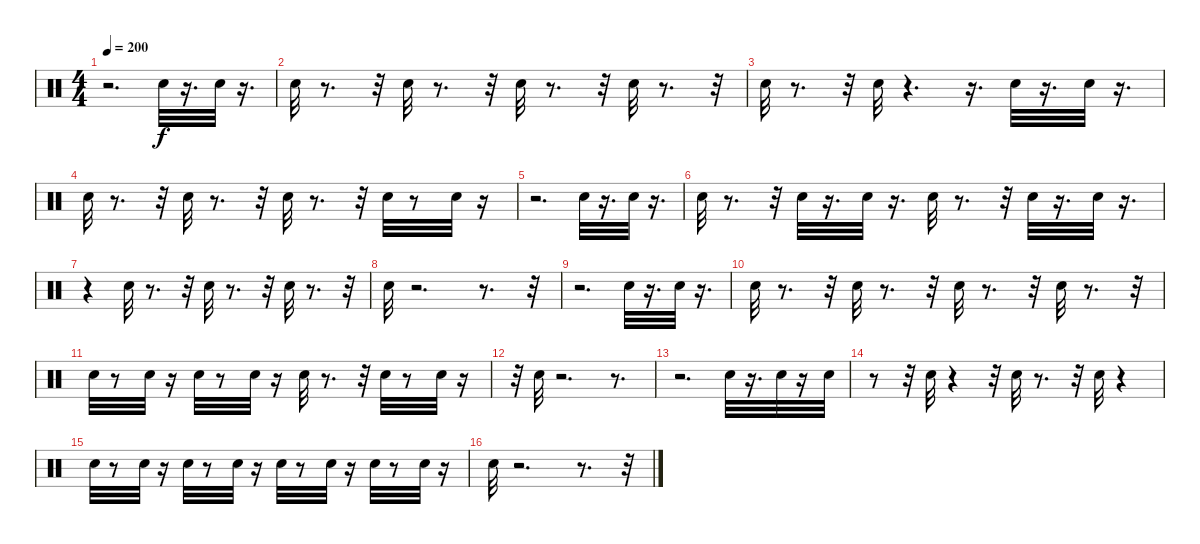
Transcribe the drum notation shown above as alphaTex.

\track "" {instrument percussion}
\staff {score}
\articulation defaults
\ts (4 4)
\tempo 200
\clef neutral
\ks c
r.2{d dy f} "Snare (hit)".32 r.16{d} "Snare (hit)".32 r.16{d} |
"Snare (hit)".32 r.8{d} r.32 "Snare (hit)".32 r.8{d} r.32 "Snare (hit)".32 r.8{d} r.32 "Snare (hit)".32 r.8{d} r.32 |
"Snare (hit)".32 r.8{d} r.32 "Snare (hit)".32 r.4{d} r.16{d} "Snare (hit)".32 r.16{d} "Snare (hit)".32 r.16{d} |
"Snare (hit)".32 r.8{d} r.32 "Snare (hit)".32 r.8{d} r.32 "Snare (hit)".32 r.8{d} r.32 "Snare (hit)".32 r.8 "Snare (hit)".32 r.16 |
r.2{d} "Snare (hit)".32 r.16{d} "Snare (hit)".32 r.16{d} |
"Snare (hit)".32 r.8{d} r.32 "Snare (hit)".32 r.16{d} "Snare (hit)".32 r.16{d} "Snare (hit)".32 r.8{d} r.32 "Snare (hit)".32 r.16{d} "Snare (hit)".32 r.16{d} |
r.4 "Snare (hit)".32 r.8{d} r.32 "Snare (hit)".32 r.8{d} r.32 "Snare (hit)".32 r.8{d} r.32 |
"Snare (hit)".32 r.2{d} r.8{d} r.32 |
r.2{d} "Snare (hit)".32 r.16{d} "Snare (hit)".32 r.16{d} |
"Snare (hit)".32 r.8{d} r.32 "Snare (hit)".32 r.8{d} r.32 "Snare (hit)".32 r.8{d} r.32 "Snare (hit)".32 r.8{d} r.32 |
"Snare (hit)".32 r.8 "Snare (hit)".32 r.16 "Snare (hit)".32 r.8 "Snare (hit)".32 r.16 "Snare (hit)".32 r.8{d} r.32 "Snare (hit)".32 r.8 "Snare (hit)".32 r.16 |
r.32 "Snare (hit)".32 r.2{d} r.8{d} |
r.2{d} "Snare (hit)".32 r.16{d} "Snare (hit)".32 r.16 "Snare (hit)".32 |
r.8 r.32 "Snare (hit)".32 r.4 r.32 "Snare (hit)".32 r.8{d} r.32 "Snare (hit)".32 r.4 |
"Snare (hit)".32 r.8 "Snare (hit)".32 r.16 "Snare (hit)".32 r.8 "Snare (hit)".32 r.16 "Snare (hit)".32 r.8 "Snare (hit)".32 r.16 "Snare (hit)".32 r.8 "Snare (hit)".32 r.16 |
"Snare (hit)".32 r.2{d} r.8{d} r.32
